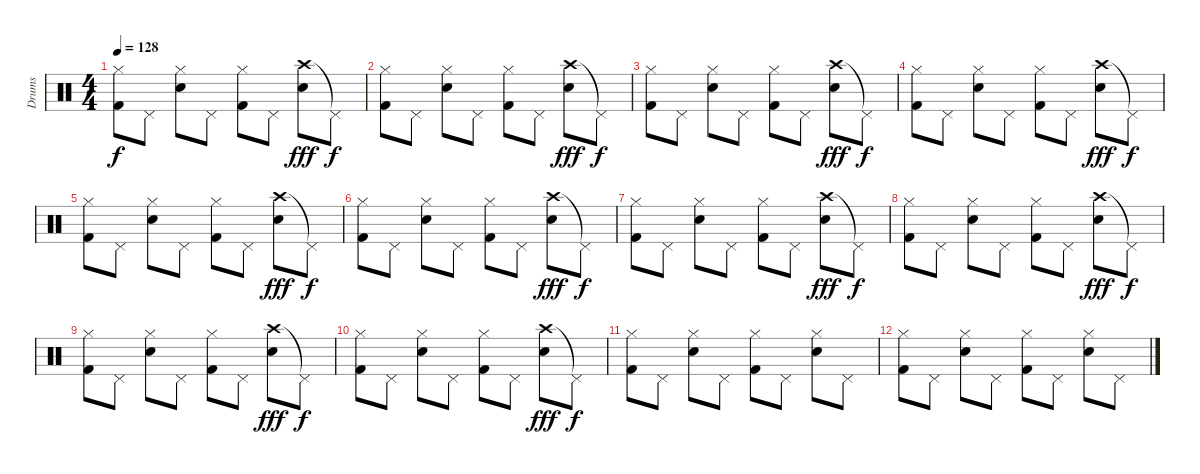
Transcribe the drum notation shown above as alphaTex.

\track ("Drums" "Drums") {instrument percussion}
\staff {score}
\articulation defaults
\ts (4 4)
\tempo 128
\clef neutral
\ks c
("Hi-Hat (closed)" "Kick (hit) 2").8{dy f} "Pedal Hi-Hat (hit)".8 ("Hi-Hat (closed)" "Snare (hit) 2").8 "Pedal Hi-Hat (hit)".8 ("Hi-Hat (closed)" "Kick (hit) 2").8 "Pedal Hi-Hat (hit)".8 ("Crash high (hit)" "Snare (hit) 2").8{dy fff} "Pedal Hi-Hat (hit)"{t}.8{dy f} |
("Hi-Hat (closed)" "Kick (hit) 2").8 "Pedal Hi-Hat (hit)".8 ("Hi-Hat (closed)" "Snare (hit) 2").8 "Pedal Hi-Hat (hit)".8 ("Hi-Hat (closed)" "Kick (hit) 2").8 "Pedal Hi-Hat (hit)".8 ("Crash high (hit)" "Snare (hit) 2").8{dy fff} "Pedal Hi-Hat (hit)"{t}.8{dy f} |
("Hi-Hat (closed)" "Kick (hit) 2").8 "Pedal Hi-Hat (hit)".8 ("Hi-Hat (closed)" "Snare (hit) 2").8 "Pedal Hi-Hat (hit)".8 ("Hi-Hat (closed)" "Kick (hit) 2").8 "Pedal Hi-Hat (hit)".8 ("Crash high (hit)" "Snare (hit) 2").8{dy fff} "Pedal Hi-Hat (hit)"{t}.8{dy f} |
("Hi-Hat (closed)" "Kick (hit) 2").8 "Pedal Hi-Hat (hit)".8 ("Hi-Hat (closed)" "Snare (hit) 2").8 "Pedal Hi-Hat (hit)".8 ("Hi-Hat (closed)" "Kick (hit) 2").8 "Pedal Hi-Hat (hit)".8 ("Crash high (hit)" "Snare (hit) 2").8{dy fff} "Pedal Hi-Hat (hit)"{t}.8{dy f} |
("Hi-Hat (closed)" "Kick (hit) 2").8 "Pedal Hi-Hat (hit)".8 ("Hi-Hat (closed)" "Snare (hit) 2").8 "Pedal Hi-Hat (hit)".8 ("Hi-Hat (closed)" "Kick (hit) 2").8 "Pedal Hi-Hat (hit)".8 ("Crash high (hit)" "Snare (hit) 2").8{dy fff} "Pedal Hi-Hat (hit)"{t}.8{dy f} |
("Hi-Hat (closed)" "Kick (hit) 2").8 "Pedal Hi-Hat (hit)".8 ("Hi-Hat (closed)" "Snare (hit) 2").8 "Pedal Hi-Hat (hit)".8 ("Hi-Hat (closed)" "Kick (hit) 2").8 "Pedal Hi-Hat (hit)".8 ("Crash high (hit)" "Snare (hit) 2").8{dy fff} "Pedal Hi-Hat (hit)"{t}.8{dy f} |
("Hi-Hat (closed)" "Kick (hit) 2").8 "Pedal Hi-Hat (hit)".8 ("Hi-Hat (closed)" "Snare (hit) 2").8 "Pedal Hi-Hat (hit)".8 ("Hi-Hat (closed)" "Kick (hit) 2").8 "Pedal Hi-Hat (hit)".8 ("Crash high (hit)" "Snare (hit) 2").8{dy fff} "Pedal Hi-Hat (hit)"{t}.8{dy f} |
("Hi-Hat (closed)" "Kick (hit) 2").8 "Pedal Hi-Hat (hit)".8 ("Hi-Hat (closed)" "Snare (hit) 2").8 "Pedal Hi-Hat (hit)".8 ("Hi-Hat (closed)" "Kick (hit) 2").8 "Pedal Hi-Hat (hit)".8 ("Crash high (hit)" "Snare (hit) 2").8{dy fff} "Pedal Hi-Hat (hit)"{t}.8{dy f} |
("Hi-Hat (closed)" "Kick (hit) 2").8 "Pedal Hi-Hat (hit)".8 ("Hi-Hat (closed)" "Snare (hit) 2").8 "Pedal Hi-Hat (hit)".8 ("Hi-Hat (closed)" "Kick (hit) 2").8 "Pedal Hi-Hat (hit)".8 ("Crash high (hit)" "Snare (hit) 2").8{dy fff} "Pedal Hi-Hat (hit)"{t}.8{dy f} |
("Hi-Hat (closed)" "Kick (hit) 2").8 "Pedal Hi-Hat (hit)".8 ("Hi-Hat (closed)" "Snare (hit) 2").8 "Pedal Hi-Hat (hit)".8 ("Hi-Hat (closed)" "Kick (hit) 2").8 "Pedal Hi-Hat (hit)".8 ("Crash high (hit)" "Snare (hit) 2").8{dy fff} "Pedal Hi-Hat (hit)"{t}.8{dy f} |
("Hi-Hat (closed)" "Kick (hit) 2").8 "Pedal Hi-Hat (hit)".8 ("Hi-Hat (closed)" "Snare (hit) 2").8 "Pedal Hi-Hat (hit)".8 ("Hi-Hat (closed)" "Kick (hit) 2").8 "Pedal Hi-Hat (hit)".8 ("Hi-Hat (closed)" "Snare (hit) 2").8 "Pedal Hi-Hat (hit)".8 |
("Hi-Hat (closed)" "Kick (hit) 2").8 "Pedal Hi-Hat (hit)".8 ("Hi-Hat (closed)" "Snare (hit) 2").8 "Pedal Hi-Hat (hit)".8 ("Hi-Hat (closed)" "Kick (hit) 2").8 "Pedal Hi-Hat (hit)".8 ("Hi-Hat (closed)" "Snare (hit) 2").8 "Pedal Hi-Hat (hit)".8
